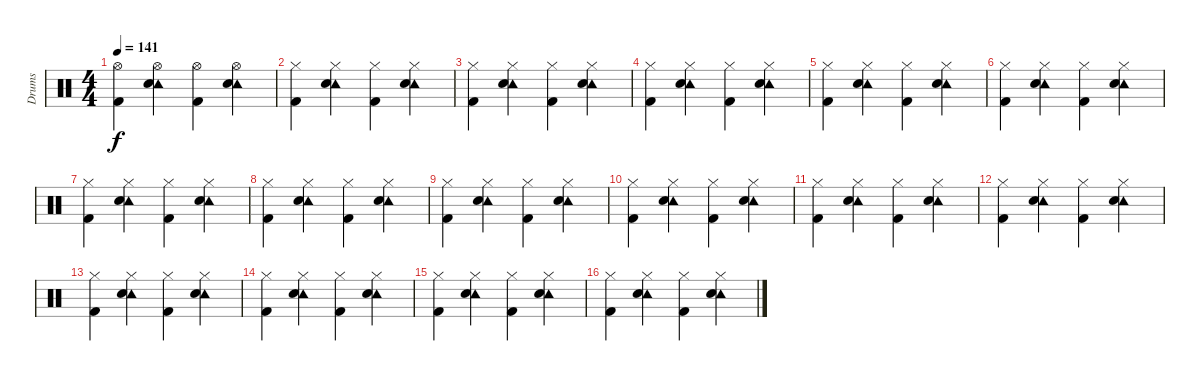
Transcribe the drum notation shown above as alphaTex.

\track ("Drums" "Drums") {instrument percussion}
\staff {score}
\articulation defaults
\ts (4 4)
\tempo 141
\clef neutral
\ks c
("Hi-Hat (open)" "Kick (hit) 2").4{dy f} ("Hi-Hat (open)" "Tambourine (hit)" "Snare (hit) 2").4 ("Hi-Hat (open)" "Kick (hit) 2").4 ("Hi-Hat (open)" "Tambourine (hit)" "Snare (hit) 2").4 |
("Hi-Hat (closed)" "Kick (hit) 2").4 ("Hi-Hat (closed)" "Tambourine (hit)" "Snare (hit) 2").4 ("Hi-Hat (closed)" "Kick (hit) 2").4 ("Hi-Hat (closed)" "Tambourine (hit)" "Snare (hit) 2").4 |
("Hi-Hat (closed)" "Kick (hit) 2").4 ("Hi-Hat (closed)" "Tambourine (hit)" "Snare (hit) 2").4 ("Hi-Hat (closed)" "Kick (hit) 2").4 ("Hi-Hat (closed)" "Tambourine (hit)" "Snare (hit) 2").4 |
("Hi-Hat (closed)" "Kick (hit) 2").4 ("Hi-Hat (closed)" "Tambourine (hit)" "Snare (hit) 2").4 ("Hi-Hat (closed)" "Kick (hit) 2").4 ("Hi-Hat (closed)" "Tambourine (hit)" "Snare (hit) 2").4 |
("Hi-Hat (closed)" "Kick (hit) 2").4 ("Hi-Hat (closed)" "Tambourine (hit)" "Snare (hit) 2").4 ("Hi-Hat (closed)" "Kick (hit) 2").4 ("Hi-Hat (closed)" "Tambourine (hit)" "Snare (hit) 2").4 |
("Hi-Hat (closed)" "Kick (hit) 2").4 ("Hi-Hat (closed)" "Tambourine (hit)" "Snare (hit) 2").4 ("Hi-Hat (closed)" "Kick (hit) 2").4 ("Hi-Hat (closed)" "Tambourine (hit)" "Snare (hit) 2").4 |
("Hi-Hat (closed)" "Kick (hit) 2").4 ("Hi-Hat (closed)" "Tambourine (hit)" "Snare (hit) 2").4 ("Hi-Hat (closed)" "Kick (hit) 2").4 ("Hi-Hat (closed)" "Tambourine (hit)" "Snare (hit) 2").4 |
("Hi-Hat (closed)" "Kick (hit) 2").4 ("Hi-Hat (closed)" "Tambourine (hit)" "Snare (hit) 2").4 ("Hi-Hat (closed)" "Kick (hit) 2").4 ("Hi-Hat (closed)" "Tambourine (hit)" "Snare (hit) 2").4 |
("Hi-Hat (closed)" "Kick (hit) 2").4 ("Hi-Hat (closed)" "Tambourine (hit)" "Snare (hit) 2").4 ("Hi-Hat (closed)" "Kick (hit) 2").4 ("Hi-Hat (closed)" "Tambourine (hit)" "Snare (hit) 2").4 |
("Hi-Hat (closed)" "Kick (hit) 2").4 ("Hi-Hat (closed)" "Tambourine (hit)" "Snare (hit) 2").4 ("Hi-Hat (closed)" "Kick (hit) 2").4 ("Hi-Hat (closed)" "Tambourine (hit)" "Snare (hit) 2").4 |
("Hi-Hat (closed)" "Kick (hit) 2").4 ("Hi-Hat (closed)" "Tambourine (hit)" "Snare (hit) 2").4 ("Hi-Hat (closed)" "Kick (hit) 2").4 ("Hi-Hat (closed)" "Tambourine (hit)" "Snare (hit) 2").4 |
("Hi-Hat (closed)" "Kick (hit) 2").4 ("Hi-Hat (closed)" "Tambourine (hit)" "Snare (hit) 2").4 ("Hi-Hat (closed)" "Kick (hit) 2").4 ("Hi-Hat (closed)" "Tambourine (hit)" "Snare (hit) 2").4 |
("Hi-Hat (closed)" "Kick (hit) 2").4 ("Hi-Hat (closed)" "Tambourine (hit)" "Snare (hit) 2").4 ("Hi-Hat (closed)" "Kick (hit) 2").4 ("Hi-Hat (closed)" "Tambourine (hit)" "Snare (hit) 2").4 |
("Hi-Hat (closed)" "Kick (hit) 2").4 ("Hi-Hat (closed)" "Tambourine (hit)" "Snare (hit) 2").4 ("Hi-Hat (closed)" "Kick (hit) 2").4 ("Hi-Hat (closed)" "Tambourine (hit)" "Snare (hit) 2").4 |
("Hi-Hat (closed)" "Kick (hit) 2").4 ("Hi-Hat (closed)" "Tambourine (hit)" "Snare (hit) 2").4 ("Hi-Hat (closed)" "Kick (hit) 2").4 ("Hi-Hat (closed)" "Tambourine (hit)" "Snare (hit) 2").4 |
("Hi-Hat (closed)" "Kick (hit) 2").4 ("Hi-Hat (closed)" "Tambourine (hit)" "Snare (hit) 2").4 ("Hi-Hat (closed)" "Kick (hit) 2").4 ("Hi-Hat (closed)" "Tambourine (hit)" "Snare (hit) 2").4
